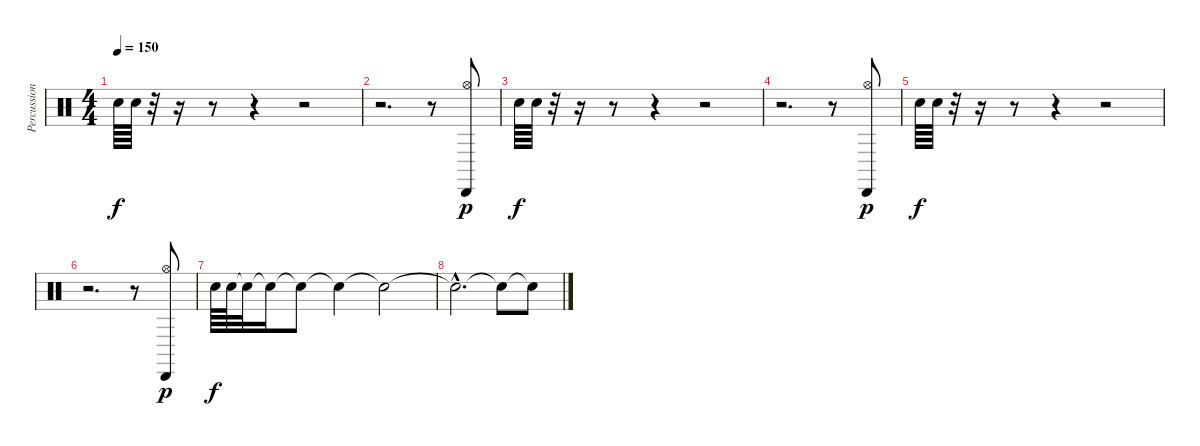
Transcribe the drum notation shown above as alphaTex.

\track ("Percussion" "Percussion") {instrument percussion}
\staff {score}
\articulation defaults
\ts (4 4)
\tempo 150
\clef neutral
\ks c "Electric Snare (hit)".64{dy f} "Electric Snare (hit)".64
r.32 r.16 r.8 r.4 r.2 |
r.2{d} r.8 ("Hi-Hat (open)" "Cabasa (hit)").8{dy p} |
"Electric Snare (hit)".64{dy f} "Electric Snare (hit)".64 r.32 r.16 r.8 r.4 r.2 |
r.2{d} r.8 ("Hi-Hat (open)" "Cabasa (hit)").8{dy p} |
"Electric Snare (hit)".64{dy f} "Electric Snare (hit)".64 r.32 r.16 r.8 r.4 r.2 |
r.2{d} r.8 ("Hi-Hat (open)" "Cabasa (hit)").8{dy p} |
"Electric Snare (hit)".64{dy f} "Electric Snare (hit)".64 "Snare (hit)"{t}.32 "Snare (hit)"{t}.16 "Snare (hit)"{t}.8 "Snare (hit)"{t}.4 "Snare (hit)"{t}.2 |
"Snare (hit)"{hac t}.2{d} "Snare (hit)"{t}.8 "Snare (hit)"{t}.8
